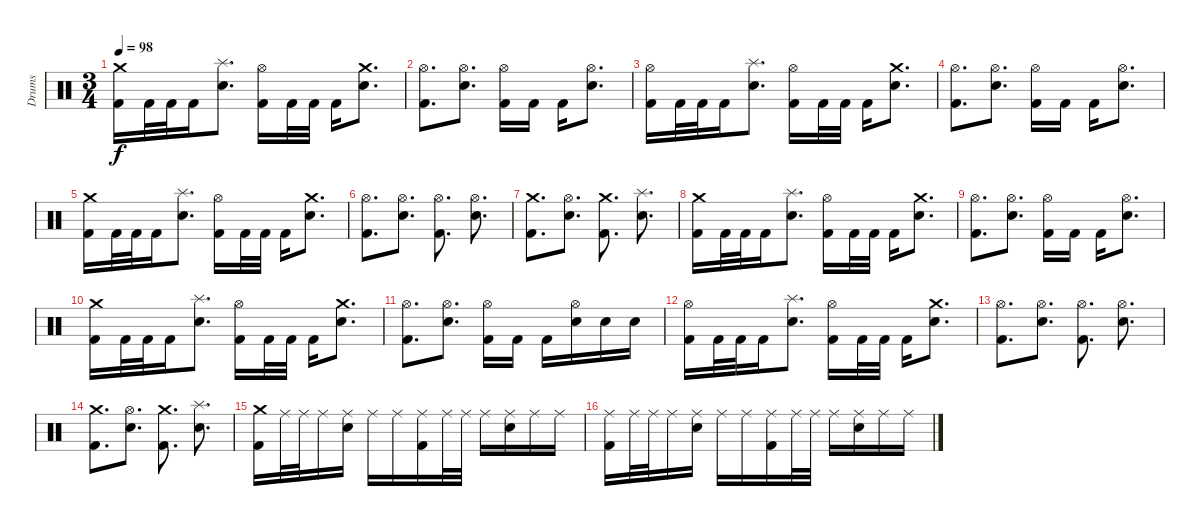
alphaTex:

\track ("Drums" "Drums") {instrument percussion}
\staff {score}
\articulation defaults
\ts (3 4)
\tempo 98
\clef neutral
\ks c
("Crash medium (hit)" "Kick (hit) 2").16{dy f} "Kick (hit) 2".32 "Kick (hit) 2".32 "Kick (hit) 2".16 ("Splash (hit)" "Electric Snare (hit)").8{d} ("Hi-Hat (open)" "Kick (hit) 2").16 "Kick (hit) 2".32 "Kick (hit) 2".32 "Kick (hit) 2".16 ("Crash medium (hit)" "Electric Snare (hit)").8{d} |
("Hi-Hat (open)" "Kick (hit) 2").8{d} ("Hi-Hat (open)" "Electric Snare (hit)").8{d} ("Hi-Hat (open)" "Kick (hit) 2").16 "Kick (hit) 2".16 "Kick (hit) 2".16 ("Hi-Hat (open)" "Electric Snare (hit)").8{d} |
("Hi-Hat (open)" "Kick (hit) 2").16 "Kick (hit) 2".32 "Kick (hit) 2".32 "Kick (hit) 2".16 ("Splash (hit)" "Electric Snare (hit)").8{d} ("Hi-Hat (open)" "Kick (hit) 2").16 "Kick (hit) 2".32 "Kick (hit) 2".32 "Kick (hit) 2".16 ("Crash medium (hit)" "Electric Snare (hit)").8{d} |
("Hi-Hat (open)" "Kick (hit) 2").8{d} ("Hi-Hat (open)" "Electric Snare (hit)").8{d} ("Hi-Hat (open)" "Kick (hit) 2").16 "Kick (hit) 2".16 "Kick (hit) 2".16 ("Hi-Hat (open)" "Electric Snare (hit)").8{d} |
("Crash medium (hit)" "Kick (hit) 2").16 "Kick (hit) 2".32 "Kick (hit) 2".32 "Kick (hit) 2".16 ("Splash (hit)" "Electric Snare (hit)").8{d} ("Hi-Hat (open)" "Kick (hit) 2").16 "Kick (hit) 2".32 "Kick (hit) 2".32 "Kick (hit) 2".16 ("Crash medium (hit)" "Electric Snare (hit)").8{d} |
("Hi-Hat (open)" "Kick (hit) 2").8{d} ("Hi-Hat (open)" "Electric Snare (hit)").8{d} ("Hi-Hat (open)" "Kick (hit) 2").8{d} ("Hi-Hat (open)" "Electric Snare (hit)").8{d} |
("Crash medium (hit)" "Kick (hit) 2").8{d} ("Hi-Hat (open)" "Electric Snare (hit)").8{d} ("Crash medium (hit)" "Kick (hit) 2").8{d} ("Splash (hit)" "Electric Snare (hit)").8{d} |
("Crash medium (hit)" "Kick (hit) 2").16 "Kick (hit) 2".32 "Kick (hit) 2".32 "Kick (hit) 2".16 ("Splash (hit)" "Electric Snare (hit)").8{d} ("Hi-Hat (open)" "Kick (hit) 2").16 "Kick (hit) 2".32 "Kick (hit) 2".32 "Kick (hit) 2".16 ("Crash medium (hit)" "Electric Snare (hit)").8{d} |
("Hi-Hat (open)" "Kick (hit) 2").8{d} ("Hi-Hat (open)" "Electric Snare (hit)").8{d} ("Hi-Hat (open)" "Kick (hit) 2").16 "Kick (hit) 2".16 "Kick (hit) 2".16 ("Hi-Hat (open)" "Electric Snare (hit)").8{d} |
("Crash medium (hit)" "Kick (hit) 2").16 "Kick (hit) 2".32 "Kick (hit) 2".32 "Kick (hit) 2".16 ("Splash (hit)" "Electric Snare (hit)").8{d} ("Hi-Hat (open)" "Kick (hit) 2").16 "Kick (hit) 2".32 "Kick (hit) 2".32 "Kick (hit) 2".16 ("Crash medium (hit)" "Electric Snare (hit)").8{d} |
("Hi-Hat (open)" "Kick (hit) 2").8{d} ("Hi-Hat (open)" "Electric Snare (hit)").8{d} ("Hi-Hat (open)" "Kick (hit) 2").16 "Kick (hit) 2".16 "Kick (hit) 2".16 ("Hi-Hat (open)" "Electric Snare (hit)").16 "Electric Snare (hit)".16 "Electric Snare (hit)".16 |
("Hi-Hat (open)" "Kick (hit) 2").16 "Kick (hit) 2".32 "Kick (hit) 2".32 "Kick (hit) 2".16 ("Splash (hit)" "Electric Snare (hit)").8{d} ("Hi-Hat (open)" "Kick (hit) 2").16 "Kick (hit) 2".32 "Kick (hit) 2".32 "Kick (hit) 2".16 ("Crash medium (hit)" "Electric Snare (hit)").8{d} |
("Hi-Hat (open)" "Kick (hit) 2").8{d} ("Hi-Hat (open)" "Electric Snare (hit)").8{d} ("Hi-Hat (open)" "Kick (hit) 2").8{d} ("Hi-Hat (open)" "Electric Snare (hit)").8{d} |
("Crash medium (hit)" "Kick (hit) 2").8{d} ("Hi-Hat (open)" "Electric Snare (hit)").8{d} ("Crash medium (hit)" "Kick (hit) 2").8{d} ("Splash (hit)" "Electric Snare (hit)").8{d} |
("Crash medium (hit)" "Kick (hit) 2").16 "Ride (middle)".32 "Ride (middle)".32 "Ride (middle)".16 ("Ride (middle)" "Electric Snare (hit)").16 "Ride (middle)".16 "Ride (middle)".16 ("Ride (middle)" "Kick (hit) 2").16 "Ride (middle)".32 "Ride (middle)".32 "Ride (middle)".16 ("Ride (middle)" "Electric Snare (hit)").16 "Ride (middle)".16 "Ride (middle)".16 |
("Ride (middle)" "Kick (hit) 2").16 "Ride (middle)".32 "Ride (middle)".32 "Ride (middle)".16 ("Ride (middle)" "Electric Snare (hit)").16 "Ride (middle)".16 "Ride (middle)".16 ("Ride (middle)" "Kick (hit) 2").16 "Ride (middle)".32 "Ride (middle)".32 "Ride (middle)".16 ("Ride (middle)" "Electric Snare (hit)").16 "Ride (middle)".16 "Ride (middle)".16
